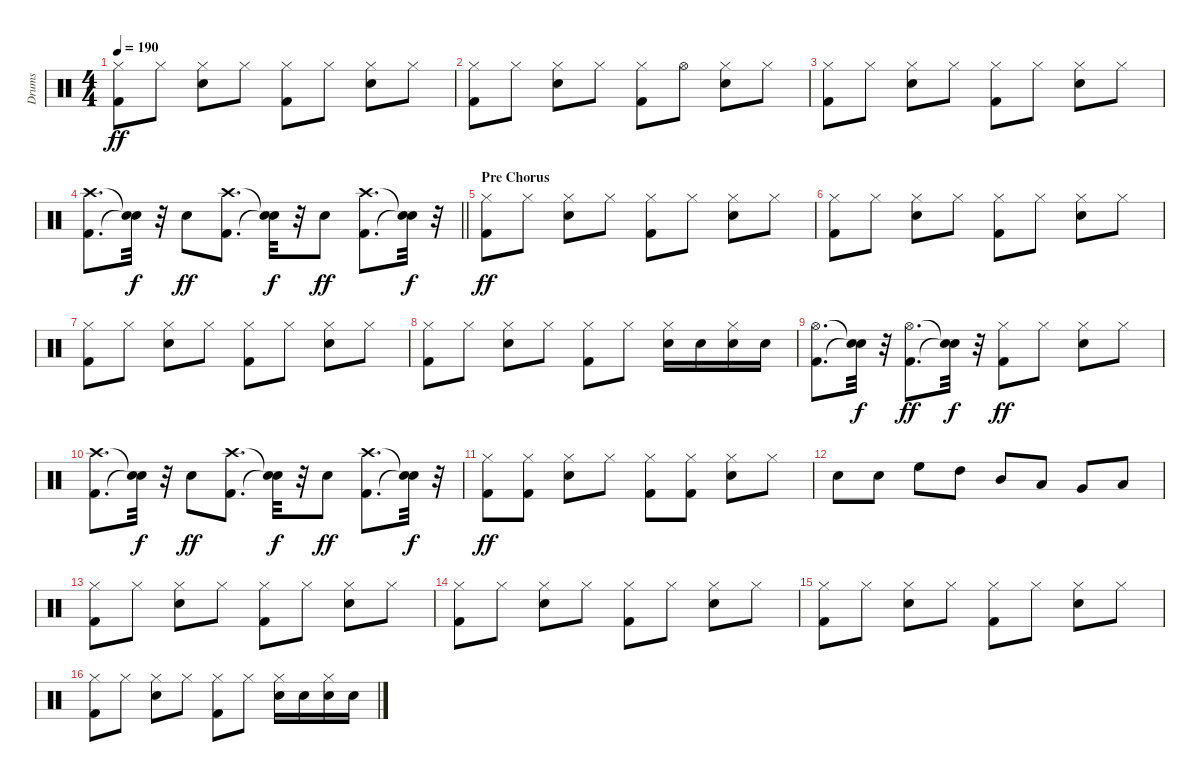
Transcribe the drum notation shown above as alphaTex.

\track ("Drums" "Drums") {instrument percussion}
\staff {score}
\articulation defaults
\ts (4 4)
\tempo 190
\clef neutral
\ks c
("Kick (hit) 2" "Hi-Hat (closed)").8{dy ff} "Hi-Hat (closed)".8 ("Snare (hit) 2" "Hi-Hat (closed)").8 "Hi-Hat (closed)".8 ("Kick (hit) 2" "Hi-Hat (closed)").8 "Hi-Hat (closed)".8 ("Snare (hit) 2" "Hi-Hat (closed)").8 "Hi-Hat (closed)".8 |
("Kick (hit) 2" "Hi-Hat (closed)").8 "Hi-Hat (closed)".8 ("Snare (hit) 2" "Hi-Hat (closed)").8 "Hi-Hat (closed)".8 ("Kick (hit) 2" "Hi-Hat (closed)").8 "Hi-Hat (open)".8 ("Snare (hit) 2" "Hi-Hat (closed)").8 "Hi-Hat (closed)".8 |
("Kick (hit) 2" "Hi-Hat (closed)").8 "Hi-Hat (closed)".8 ("Snare (hit) 2" "Hi-Hat (closed)").8 "Hi-Hat (closed)".8 ("Kick (hit) 2" "Hi-Hat (closed)").8 "Hi-Hat (closed)".8 ("Snare (hit) 2" "Hi-Hat (closed)").8 "Hi-Hat (closed)".8 |
\barLineRight lightlight
("Kick (hit) 2" "Crash high (hit)").8{d} ("Snare (hit)"{t} "Snare (hit)"{t}).32{dy f} r.32 "Snare (hit) 2".8{dy ff} ("Kick (hit) 2" "Crash high (hit)").8{d} ("Snare (hit)"{t} "Snare (hit)"{t}).32{dy f} r.32 "Snare (hit) 2".8{dy ff} ("Kick (hit) 2" "Crash high (hit)").8{d} ("Snare (hit)"{t} "Snare (hit)"{t}).32{dy f} r.32 |
\section ("" "Pre Chorus ")
("Kick (hit) 2" "Hi-Hat (closed)").8{dy ff} "Hi-Hat (closed)".8 ("Snare (hit) 2" "Hi-Hat (closed)").8 "Hi-Hat (closed)".8 ("Kick (hit) 2" "Hi-Hat (closed)").8 "Hi-Hat (closed)".8 ("Snare (hit) 2" "Hi-Hat (closed)").8 "Hi-Hat (closed)".8 |
("Kick (hit) 2" "Hi-Hat (closed)").8 "Hi-Hat (closed)".8 ("Snare (hit) 2" "Hi-Hat (closed)").8 "Hi-Hat (closed)".8 ("Kick (hit) 2" "Hi-Hat (closed)").8 "Hi-Hat (closed)".8 ("Snare (hit) 2" "Hi-Hat (closed)").8 "Hi-Hat (closed)".8 |
("Kick (hit) 2" "Hi-Hat (closed)").8 "Hi-Hat (closed)".8 ("Snare (hit) 2" "Hi-Hat (closed)").8 "Hi-Hat (closed)".8 ("Kick (hit) 2" "Hi-Hat (closed)").8 "Hi-Hat (closed)".8 ("Snare (hit) 2" "Hi-Hat (closed)").8 "Hi-Hat (closed)".8 |
("Kick (hit) 2" "Hi-Hat (closed)").8 "Hi-Hat (closed)".8 ("Snare (hit) 2" "Hi-Hat (closed)").8 "Hi-Hat (closed)".8 ("Kick (hit) 2" "Hi-Hat (closed)").8 "Hi-Hat (closed)".8 ("Snare (hit) 2" "Hi-Hat (closed)").16 "Snare (hit) 2".16 ("Snare (hit) 2" "Hi-Hat (closed)").16 "Snare (hit) 2".16 |
("Kick (hit) 2" "Hi-Hat (open)").8{d} ("Snare (hit)"{t} "Snare (hit)"{t}).32{dy f} r.32 ("Kick (hit) 2" "Hi-Hat (open)").8{d dy ff} ("Snare (hit)"{t} "Snare (hit)"{t}).32{dy f} r.32 ("Kick (hit) 2" "Hi-Hat (closed)").8{dy ff} "Hi-Hat (closed)".8 ("Snare (hit) 2" "Hi-Hat (closed)").8 "Hi-Hat (closed)".8 |
("Kick (hit) 2" "Crash high (hit)").8{d} ("Snare (hit)"{t} "Snare (hit)"{t}).32{dy f} r.32 "Snare (hit) 2".8{dy ff} ("Kick (hit) 2" "Crash high (hit)").8{d} ("Snare (hit)"{t} "Snare (hit)"{t}).32{dy f} r.32 "Snare (hit) 2".8{dy ff} ("Kick (hit) 2" "Crash high (hit)").8{d} ("Snare (hit)"{t} "Snare (hit)"{t}).32{dy f} r.32 |
("Kick (hit) 2" "Hi-Hat (closed)").8{dy ff} ("Kick (hit) 2" "Hi-Hat (closed)").8 ("Snare (hit) 2" "Hi-Hat (closed)").8 "Hi-Hat (closed)".8 ("Kick (hit) 2" "Hi-Hat (closed)").8 ("Kick (hit) 2" "Hi-Hat (closed)").8 ("Snare (hit) 2" "Hi-Hat (closed)").8 "Hi-Hat (closed)".8 |
"Snare (hit) 2".8 "Snare (hit) 2".8 "High Floor Tom (hit)".8 "High Tom (hit)".8 "Mid Tom (hit)".8 "Low Tom (hit)".8 "Very Low Tom (hit)".8 "Low Floor Tom (hit)".8 |
("Kick (hit) 2" "Hi-Hat (closed)").8 "Hi-Hat (closed)".8 ("Snare (hit) 2" "Hi-Hat (closed)").8 "Hi-Hat (closed)".8 ("Kick (hit) 2" "Hi-Hat (closed)").8 "Hi-Hat (closed)".8 ("Snare (hit) 2" "Hi-Hat (closed)").8 "Hi-Hat (closed)".8 |
("Kick (hit) 2" "Hi-Hat (closed)").8 "Hi-Hat (closed)".8 ("Snare (hit) 2" "Hi-Hat (closed)").8 "Hi-Hat (closed)".8 ("Kick (hit) 2" "Hi-Hat (closed)").8 "Hi-Hat (closed)".8 ("Snare (hit) 2" "Hi-Hat (closed)").8 "Hi-Hat (closed)".8 |
("Kick (hit) 2" "Hi-Hat (closed)").8 "Hi-Hat (closed)".8 ("Snare (hit) 2" "Hi-Hat (closed)").8 "Hi-Hat (closed)".8 ("Kick (hit) 2" "Hi-Hat (closed)").8 "Hi-Hat (closed)".8 ("Snare (hit) 2" "Hi-Hat (closed)").8 "Hi-Hat (closed)".8 |
("Kick (hit) 2" "Hi-Hat (closed)").8 "Hi-Hat (closed)".8 ("Snare (hit) 2" "Hi-Hat (closed)").8 "Hi-Hat (closed)".8 ("Kick (hit) 2" "Hi-Hat (closed)").8 "Hi-Hat (closed)".8 ("Snare (hit) 2" "Hi-Hat (closed)").16 "Snare (hit) 2".16 ("Snare (hit) 2" "Hi-Hat (closed)").16 "Snare (hit) 2".16
